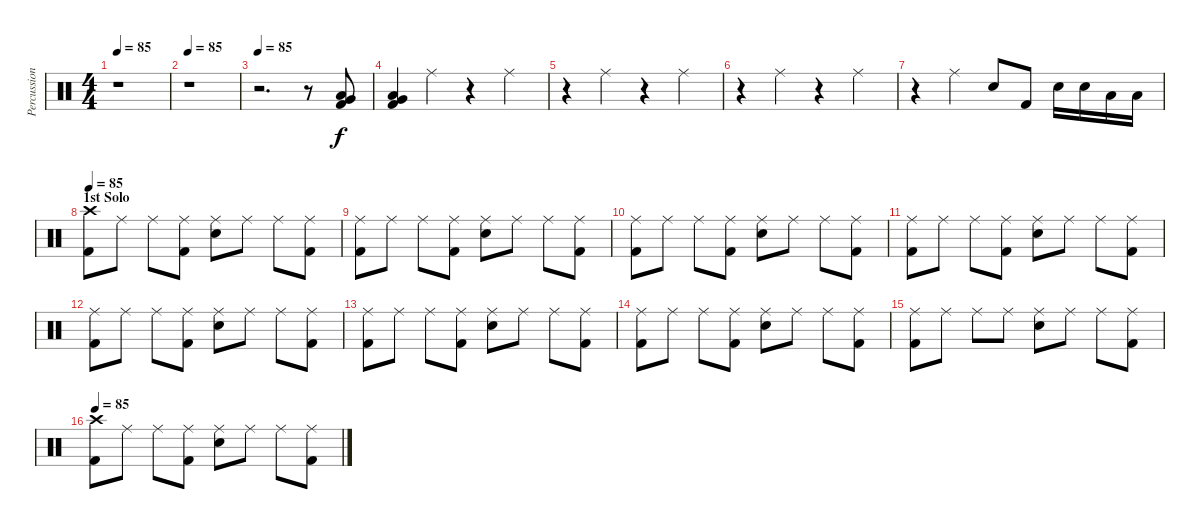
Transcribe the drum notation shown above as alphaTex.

\track ("Percussion" "Percussion") {instrument percussion}
\staff {score}
\articulation defaults
\ts (4 4)
\tempo 85
\clef neutral
\ks c
r.1{dy f} |
\tempo 85
r.1 |
\tempo 85
r.2{d} r.8 ("Low Tom (hit)" "Very Low Tom (hit)" "Kick (hit) 2").8 |
("Low Tom (hit)" "Very Low Tom (hit)" "Kick (hit) 2").4 "Ride (middle)".4 r.4 "Ride (middle)".4 |
r.4 "Ride (middle)".4 r.4 "Ride (middle)".4 |
r.4 "Ride (middle)".4 r.4 "Ride (middle)".4 |
r.4 "Ride (middle)".4 "Electric Snare (hit)".8 "Kick (hit) 2".8 "Electric Snare (hit)".16 "Electric Snare (hit)".16 "Low Tom (hit)".16 "Low Tom (hit)".16 |
\section ("" "1st Solo")
\tempo 85
("Crash high (hit)" "Kick (hit) 2").8 "Ride (middle)".8 "Ride (middle)".8 ("Ride (middle)" "Kick (hit) 2").8 ("Ride (middle)" "Electric Snare (hit)").8 "Ride (middle)".8 "Ride (middle)".8 ("Ride (middle)" "Kick (hit) 2").8 |
("Ride (middle)" "Kick (hit) 2").8 "Ride (middle)".8 "Ride (middle)".8 ("Ride (middle)" "Kick (hit) 2").8 ("Ride (middle)" "Electric Snare (hit)").8 "Ride (middle)".8 "Ride (middle)".8 ("Ride (middle)" "Kick (hit) 2").8 |
("Ride (middle)" "Kick (hit) 2").8 "Ride (middle)".8 "Ride (middle)".8 ("Ride (middle)" "Kick (hit) 2").8 ("Ride (middle)" "Electric Snare (hit)").8 "Ride (middle)".8 "Ride (middle)".8 ("Ride (middle)" "Kick (hit) 2").8 |
("Ride (middle)" "Kick (hit) 2").8 "Ride (middle)".8 "Ride (middle)".8 ("Ride (middle)" "Kick (hit) 2").8 ("Ride (middle)" "Electric Snare (hit)").8 "Ride (middle)".8 "Ride (middle)".8 ("Ride (middle)" "Kick (hit) 2").8 |
("Ride (middle)" "Kick (hit) 2").8 "Ride (middle)".8 "Ride (middle)".8 ("Ride (middle)" "Kick (hit) 2").8 ("Ride (middle)" "Electric Snare (hit)").8 "Ride (middle)".8 "Ride (middle)".8 ("Ride (middle)" "Kick (hit) 2").8 |
("Ride (middle)" "Kick (hit) 2").8 "Ride (middle)".8 "Ride (middle)".8 ("Ride (middle)" "Kick (hit) 2").8 ("Ride (middle)" "Electric Snare (hit)").8 "Ride (middle)".8 "Ride (middle)".8 ("Ride (middle)" "Kick (hit) 2").8 |
("Ride (middle)" "Kick (hit) 2").8 "Ride (middle)".8 "Ride (middle)".8 ("Ride (middle)" "Kick (hit) 2").8 ("Ride (middle)" "Electric Snare (hit)").8 "Ride (middle)".8 "Ride (middle)".8 ("Ride (middle)" "Kick (hit) 2").8 |
("Ride (middle)" "Kick (hit) 2").8 "Ride (middle)".8 "Ride (middle)".8 "Ride (middle)".8 ("Ride (middle)" "Electric Snare (hit)").8 "Ride (middle)".8 "Ride (middle)".8 ("Ride (middle)" "Kick (hit) 2").8 |
\tempo 85
("Crash high (hit)" "Kick (hit) 2").8 "Ride (middle)".8 "Ride (middle)".8 ("Ride (middle)" "Kick (hit) 2").8 ("Ride (middle)" "Electric Snare (hit)").8 "Ride (middle)".8 "Ride (middle)".8 ("Ride (middle)" "Kick (hit) 2").8
